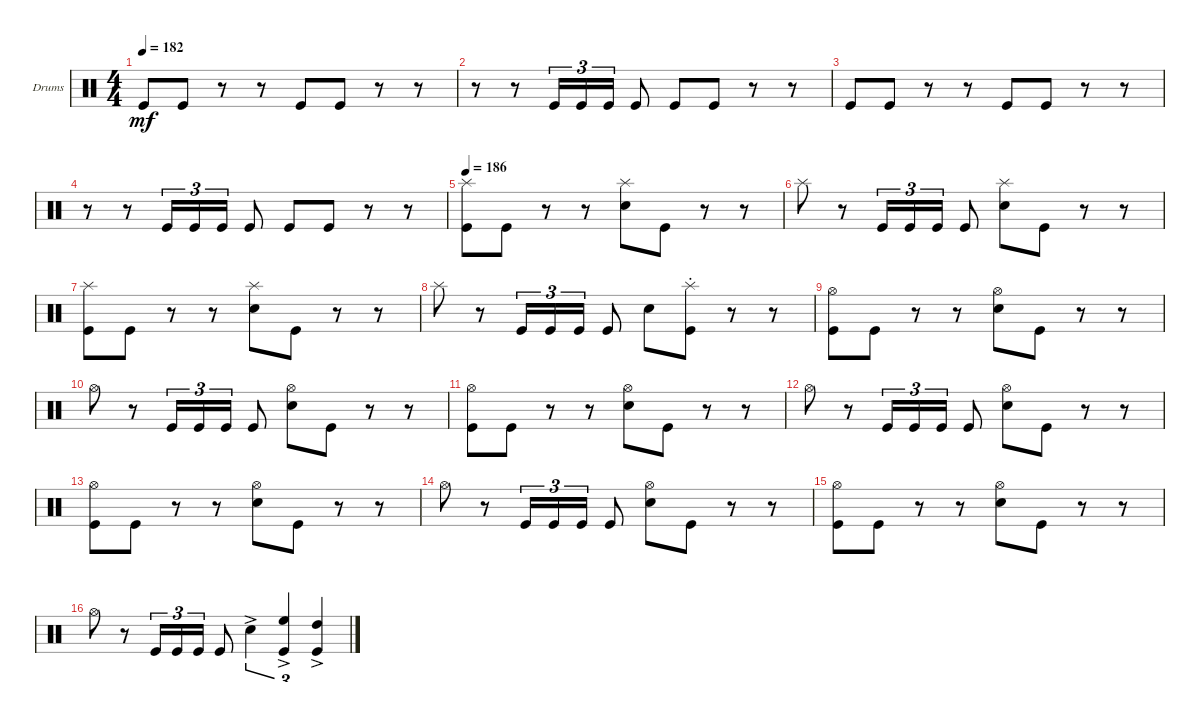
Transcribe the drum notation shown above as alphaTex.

\bracketExtendMode groupsimilarinstruments
\firstSystemTrackNameOrientation horizontal
\otherSystemsTrackNameOrientation horizontal
\track ("Drumkit" "Drums") {instrument percussion}
\staff {score}
\articulation defaults
\ts (4 4)
\tempo 182
\clef neutral
\ks c "Kick (hit)".8{dy mf} "Kick (hit)".8
r.8 r.8 "Kick (hit)".8 "Kick (hit)".8 r.8 r.8 |
r.8 r.8 "Kick (hit)".16{tu (3 2)} "Kick (hit)".16{tu (3 2)} "Kick (hit)".16{tu (3 2)} "Kick (hit)".8 "Kick (hit)".8 "Kick (hit)".8 r.8 r.8 |
"Kick (hit)".8 "Kick (hit)".8 r.8 r.8 "Kick (hit)".8 "Kick (hit)".8 r.8 r.8 |
r.8 r.8 "Kick (hit)".16{tu (3 2)} "Kick (hit)".16{tu (3 2)} "Kick (hit)".16{tu (3 2)} "Kick (hit)".8 "Kick (hit)".8 "Kick (hit)".8 r.8 r.8 |
\tempo 186
("Kick (hit)" "Splash (hit)").8 "Kick (hit)".8 r.8 r.8 ("Splash (hit)" "Snare (hit) 2").8 "Kick (hit)".8 r.8 r.8 |
"Splash (hit)".8 r.8 "Kick (hit)".16{tu (3 2)} "Kick (hit)".16{tu (3 2)} "Kick (hit)".16{tu (3 2)} "Kick (hit)".8 ("Snare (hit) 2" "Splash (hit)").8 "Kick (hit)".8 r.8 r.8 |
("Kick (hit)" "Splash (hit)").8 "Kick (hit)".8 r.8 r.8 ("Splash (hit)" "Snare (hit) 2").8 "Kick (hit)".8 r.8 r.8 |
"Splash (hit)".8 r.8 "Kick (hit)".16{tu (3 2)} "Kick (hit)".16{tu (3 2)} "Kick (hit)".16{tu (3 2)} "Kick (hit)".8 "Snare (hit) 2".8 ("Kick (hit)" "Splash (hit)"{st}).8 r.8 r.8 |
("Kick (hit)" "Hi-Hat (open)").8 "Kick (hit)".8 r.8 r.8 ("Snare (hit) 2" "Hi-Hat (open)").8 "Kick (hit)".8 r.8 r.8 |
"Hi-Hat (open)".8 r.8 "Kick (hit)".16{tu (3 2)} "Kick (hit)".16{tu (3 2)} "Kick (hit)".16{tu (3 2)} "Kick (hit)".8 ("Snare (hit) 2" "Hi-Hat (open)").8 "Kick (hit)".8 r.8 r.8 |
("Kick (hit)" "Hi-Hat (open)").8 "Kick (hit)".8 r.8 r.8 ("Snare (hit) 2" "Hi-Hat (open)").8 "Kick (hit)".8 r.8 r.8 |
"Hi-Hat (open)".8 r.8 "Kick (hit)".16{tu (3 2)} "Kick (hit)".16{tu (3 2)} "Kick (hit)".16{tu (3 2)} "Kick (hit)".8 ("Snare (hit) 2" "Hi-Hat (open)").8 "Kick (hit)".8 r.8 r.8 |
("Kick (hit)" "Hi-Hat (open)").8 "Kick (hit)".8 r.8 r.8 ("Snare (hit) 2" "Hi-Hat (open)").8 "Kick (hit)".8 r.8 r.8 |
"Hi-Hat (open)".8 r.8 "Kick (hit)".16{tu (3 2)} "Kick (hit)".16{tu (3 2)} "Kick (hit)".16{tu (3 2)} "Kick (hit)".8 ("Snare (hit) 2" "Hi-Hat (open)").8 "Kick (hit)".8 r.8 r.8 |
("Kick (hit)" "Hi-Hat (open)").8 "Kick (hit)".8 r.8 r.8 ("Snare (hit) 2" "Hi-Hat (open)").8 "Kick (hit)".8 r.8 r.8 |
"Hi-Hat (open)".8 r.8 "Kick (hit)".16{tu (3 2)} "Kick (hit)".16{tu (3 2)} "Kick (hit)".16{tu (3 2)} "Kick (hit)".8 "Snare (hit) 2"{ac}.4{tu (3 2)} ("Kick (hit)"{ac} "High Floor Tom (hit)").4{tu (3 2)} ("Kick (hit)"{ac} "High Tom (hit)").4{tu (3 2)}
